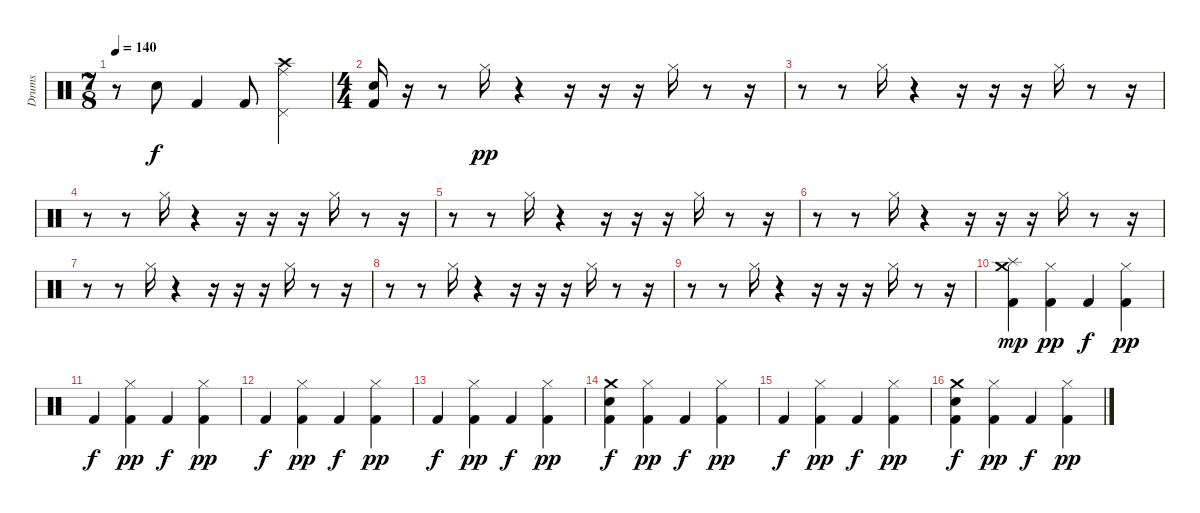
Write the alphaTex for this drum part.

\track ("Drums" "Drums") {instrument percussion}
\staff {score}
\articulation defaults
\ts (7 8)
\tempo 140
\clef neutral
\ks c
r.8{dy f} "Electric Snare (hit)".8 "Kick (hit) 2".4 "Kick (hit) 2".8 ("Pedal Hi-Hat (hit)" "Ride (middle)" "Crash high (hit)").4 |
\ts (4 4)
("Kick (hit) 2" "Electric Snare (hit)").16 r.16 r.8 "Hi-Hat (closed)".16{dy pp} r.4 r.16 r.16 r.16 "Hi-Hat (closed)".16 r.8 r.16 |
r.8 r.8 "Hi-Hat (closed)".16 r.4 r.16 r.16 r.16 "Hi-Hat (closed)".16 r.8 r.16 |
r.8 r.8 "Hi-Hat (closed)".16 r.4 r.16 r.16 r.16 "Hi-Hat (closed)".16 r.8 r.16 |
r.8 r.8 "Hi-Hat (closed)".16 r.4 r.16 r.16 r.16 "Hi-Hat (closed)".16 r.8 r.16 |
r.8 r.8 "Hi-Hat (closed)".16 r.4 r.16 r.16 r.16 "Hi-Hat (closed)".16 r.8 r.16 |
r.8 r.8 "Hi-Hat (closed)".16 r.4 r.16 r.16 r.16 "Hi-Hat (closed)".16 r.8 r.16 |
r.8 r.8 "Hi-Hat (closed)".16 r.4 r.16 r.16 r.16 "Hi-Hat (closed)".16 r.8 r.16 |
r.8 r.8 "Hi-Hat (closed)".16 r.4 r.16 r.16 r.16 "Hi-Hat (closed)".16 r.8 r.16 |
("Crash medium (hit)" "Splash (hit)" "Kick (hit) 2").4{dy mp} ("Hi-Hat (closed)" "Kick (hit) 2").4{dy pp} "Kick (hit) 2".4{dy f} ("Hi-Hat (closed)" "Kick (hit) 2").4{dy pp} |
"Kick (hit) 2".4{dy f} ("Hi-Hat (closed)" "Kick (hit) 2").4{dy pp} "Kick (hit) 2".4{dy f} ("Hi-Hat (closed)" "Kick (hit) 2").4{dy pp} |
"Kick (hit) 2".4{dy f} ("Hi-Hat (closed)" "Kick (hit) 2").4{dy pp} "Kick (hit) 2".4{dy f} ("Hi-Hat (closed)" "Kick (hit) 2").4{dy pp} |
"Kick (hit) 2".4{dy f} ("Hi-Hat (closed)" "Kick (hit) 2").4{dy pp} "Kick (hit) 2".4{dy f} ("Hi-Hat (closed)" "Kick (hit) 2").4{dy pp} |
("Crash medium (hit)" "Electric Snare (hit)" "Kick (hit) 2").4{dy f} ("Hi-Hat (closed)" "Kick (hit) 2").4{dy pp} "Kick (hit) 2".4{dy f} ("Hi-Hat (closed)" "Kick (hit) 2").4{dy pp} |
"Kick (hit) 2".4{dy f} ("Hi-Hat (closed)" "Kick (hit) 2").4{dy pp} "Kick (hit) 2".4{dy f} ("Hi-Hat (closed)" "Kick (hit) 2").4{dy pp} |
("Crash medium (hit)" "Electric Snare (hit)" "Kick (hit) 2").4{dy f} ("Hi-Hat (closed)" "Kick (hit) 2").4{dy pp} "Kick (hit) 2".4{dy f} ("Hi-Hat (closed)" "Kick (hit) 2").4{dy pp}
